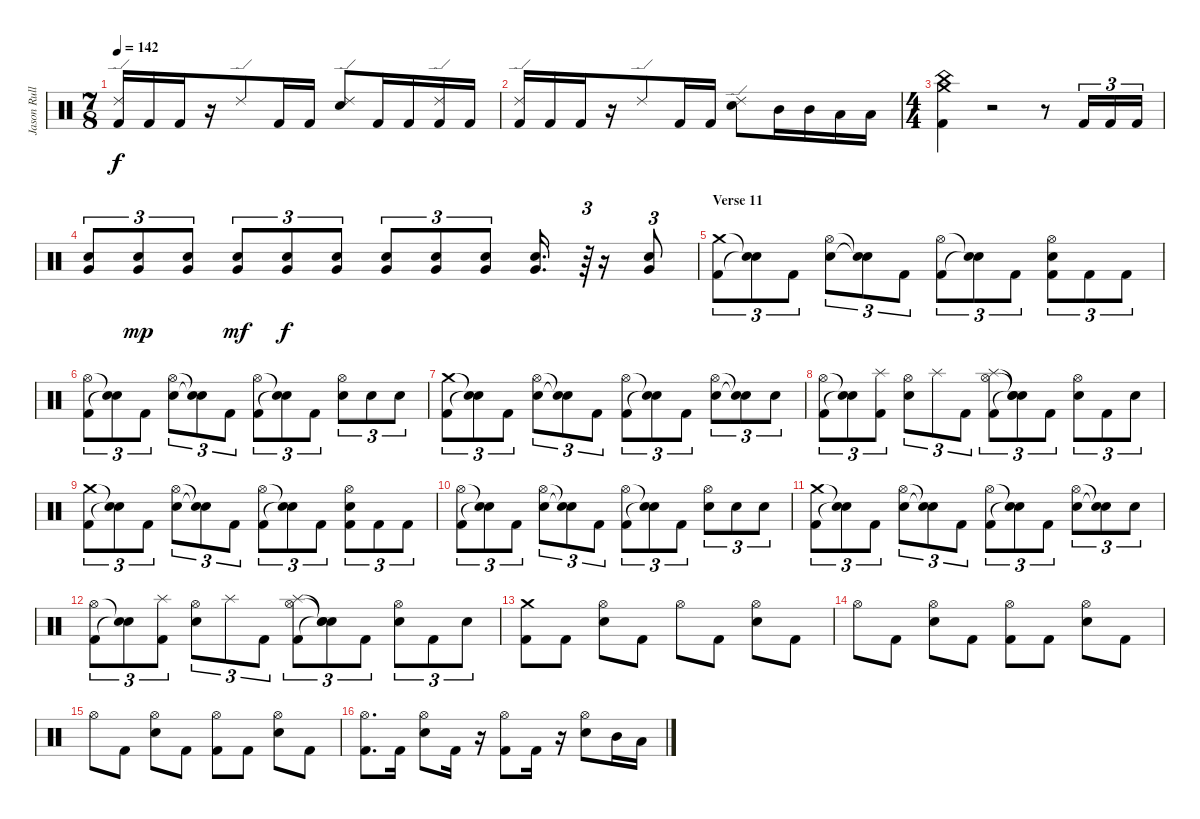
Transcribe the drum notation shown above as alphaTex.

\track ("Jason Rullo" "Jason Rull") {instrument percussion}
\staff {score}
\articulation defaults
\ts (7 8)
\tempo 142
\clef neutral
\ks c
("Ride (edge) 2" "Kick (hit) 2").16{dy f} "Kick (hit) 2".16 "Kick (hit) 2".16 r.16 "Ride (edge) 2".8 "Kick (hit) 2".16 "Kick (hit) 2".16 ("Ride (edge) 2" "Electric Snare (hit)").8 "Kick (hit) 2".16 "Kick (hit) 2".16 ("Ride (edge) 2" "Kick (hit) 2").16 "Kick (hit) 2".16 |
("Ride (edge) 2" "Kick (hit) 2").16 "Kick (hit) 2".16 "Kick (hit) 2".16 r.16 "Ride (edge) 2".8 "Kick (hit) 2".16 "Kick (hit) 2".16 ("Ride (edge) 2" "Electric Snare (hit)").8 "Mid Tom (hit)".16 "Mid Tom (hit)".16 "Low Tom (hit)".16 "Low Tom (hit)".16 |
\ts (4 4)
("China (hit)" "Crash medium (hit)" "Kick (hit) 2").4 r.2 r.8 "Kick (hit) 2".16{tu (3 2)} "Kick (hit) 2".16{tu (3 2)} "Kick (hit) 2".16{tu (3 2)} |
("Very Low Tom (hit)" "Electric Snare (hit)").8{tu (3 2)} ("Very Low Tom (hit)" "Electric Snare (hit)").8{tu (3 2) dy mp} ("Very Low Tom (hit)" "Electric Snare (hit)").8{tu (3 2)} ("Very Low Tom (hit)" "Electric Snare (hit)").8{tu (3 2) dy mf} ("Very Low Tom (hit)" "Electric Snare (hit)").8{tu (3 2) dy f} ("Very Low Tom (hit)" "Electric Snare (hit)").8{tu (3 2)} ("Very Low Tom (hit)" "Electric Snare (hit)").8{tu (3 2)} ("Very Low Tom (hit)" "Electric Snare (hit)").8{tu (3 2)} ("Very Low Tom (hit)" "Electric Snare (hit)").8{tu (3 2)} ("Very Low Tom (hit)" "Electric Snare (hit)").16{d} r.64{tu (3 2)} r.16 ("Very Low Tom (hit)" "Electric Snare (hit)").8{tu (3 2)} |
\section ("" "Verse 11")
("Crash medium (hit)" "Kick (hit) 2").8{tu (3 2)} ("Snare (hit)"{t} "Snare (hit)"{t}).8{tu (3 2)} "Kick (hit) 2".8{tu (3 2)} ("Hi-Hat (open)" "Electric Snare (hit)").8{tu (3 2)} ("Snare (hit)"{t} "Snare (hit)"{t}).8{tu (3 2)} "Kick (hit) 2".8{tu (3 2)} ("Hi-Hat (open)" "Kick (hit) 2").8{tu (3 2)} ("Snare (hit)"{t} "Snare (hit)"{t}).8{tu (3 2)} "Kick (hit) 2".8{tu (3 2)} ("Hi-Hat (open)" "Electric Snare (hit)" "Kick (hit) 2").8{tu (3 2)} "Kick (hit) 2".8{tu (3 2)} "Kick (hit) 2".8{tu (3 2)} |
("Hi-Hat (open)" "Kick (hit) 2").8{tu (3 2)} ("Snare (hit)"{t} "Snare (hit)"{t}).8{tu (3 2)} "Kick (hit) 2".8{tu (3 2)} ("Hi-Hat (open)" "Electric Snare (hit)").8{tu (3 2)} ("Snare (hit)"{t} "Snare (hit)"{t}).8{tu (3 2)} "Kick (hit) 2".8{tu (3 2)} ("Hi-Hat (open)" "Kick (hit) 2").8{tu (3 2)} ("Snare (hit)"{t} "Snare (hit)"{t}).8{tu (3 2)} "Kick (hit) 2".8{tu (3 2)} ("Hi-Hat (open)" "Electric Snare (hit)").8{tu (3 2)} "Electric Snare (hit)".8{tu (3 2)} "Electric Snare (hit)".8{tu (3 2)} |
("Crash medium (hit)" "Kick (hit) 2").8{tu (3 2)} ("Snare (hit)"{t} "Snare (hit)"{t}).8{tu (3 2)} "Kick (hit) 2".8{tu (3 2)} ("Hi-Hat (open)" "Electric Snare (hit)").8{tu (3 2)} ("Snare (hit)"{t} "Snare (hit)"{t}).8{tu (3 2)} "Kick (hit) 2".8{tu (3 2)} ("Hi-Hat (open)" "Kick (hit) 2").8{tu (3 2)} ("Snare (hit)"{t} "Snare (hit)"{t}).8{tu (3 2)} "Kick (hit) 2".8{tu (3 2)} ("Hi-Hat (open)" "Electric Snare (hit)").8{tu (3 2)} ("Snare (hit)"{t} "Snare (hit)"{t}).8{tu (3 2)} "Electric Snare (hit)".8{tu (3 2)} |
("Hi-Hat (open)" "Kick (hit) 2").8{tu (3 2)} ("Snare (hit)"{t} "Snare (hit)"{t}).8{tu (3 2)} ("Splash (hit)" "Kick (hit) 2").8{tu (3 2)} ("Hi-Hat (open)" "Electric Snare (hit)").8{tu (3 2)} "Splash (hit)".8{tu (3 2)} "Kick (hit) 2".8{tu (3 2)} ("Splash (hit)" "Hi-Hat (open)" "Kick (hit) 2").8{tu (3 2)} ("Snare (hit)"{t} "Snare (hit)"{t} "Snare (hit)"{t}).8{tu (3 2)} "Kick (hit) 2".8{tu (3 2)} ("Electric Snare (hit)" "Hi-Hat (open)").8{tu (3 2)} "Kick (hit) 2".8{tu (3 2)} "Electric Snare (hit)".8{tu (3 2)} |
("Crash medium (hit)" "Kick (hit) 2").8{tu (3 2)} ("Snare (hit)"{t} "Snare (hit)"{t}).8{tu (3 2)} "Kick (hit) 2".8{tu (3 2)} ("Hi-Hat (open)" "Electric Snare (hit)").8{tu (3 2)} ("Snare (hit)"{t} "Snare (hit)"{t}).8{tu (3 2)} "Kick (hit) 2".8{tu (3 2)} ("Hi-Hat (open)" "Kick (hit) 2").8{tu (3 2)} ("Snare (hit)"{t} "Snare (hit)"{t}).8{tu (3 2)} "Kick (hit) 2".8{tu (3 2)} ("Hi-Hat (open)" "Electric Snare (hit)" "Kick (hit) 2").8{tu (3 2)} "Kick (hit) 2".8{tu (3 2)} "Kick (hit) 2".8{tu (3 2)} |
("Hi-Hat (open)" "Kick (hit) 2").8{tu (3 2)} ("Snare (hit)"{t} "Snare (hit)"{t}).8{tu (3 2)} "Kick (hit) 2".8{tu (3 2)} ("Hi-Hat (open)" "Electric Snare (hit)").8{tu (3 2)} ("Snare (hit)"{t} "Snare (hit)"{t}).8{tu (3 2)} "Kick (hit) 2".8{tu (3 2)} ("Hi-Hat (open)" "Kick (hit) 2").8{tu (3 2)} ("Snare (hit)"{t} "Snare (hit)"{t}).8{tu (3 2)} "Kick (hit) 2".8{tu (3 2)} ("Hi-Hat (open)" "Electric Snare (hit)").8{tu (3 2)} "Electric Snare (hit)".8{tu (3 2)} "Electric Snare (hit)".8{tu (3 2)} |
("Crash medium (hit)" "Kick (hit) 2").8{tu (3 2)} ("Snare (hit)"{t} "Snare (hit)"{t}).8{tu (3 2)} "Kick (hit) 2".8{tu (3 2)} ("Hi-Hat (open)" "Electric Snare (hit)").8{tu (3 2)} ("Snare (hit)"{t} "Snare (hit)"{t}).8{tu (3 2)} "Kick (hit) 2".8{tu (3 2)} ("Hi-Hat (open)" "Kick (hit) 2").8{tu (3 2)} ("Snare (hit)"{t} "Snare (hit)"{t}).8{tu (3 2)} "Kick (hit) 2".8{tu (3 2)} ("Hi-Hat (open)" "Electric Snare (hit)").8{tu (3 2)} ("Snare (hit)"{t} "Snare (hit)"{t}).8{tu (3 2)} "Electric Snare (hit)".8{tu (3 2)} |
("Hi-Hat (open)" "Kick (hit) 2").8{tu (3 2)} ("Snare (hit)"{t} "Snare (hit)"{t}).8{tu (3 2)} ("Splash (hit)" "Kick (hit) 2").8{tu (3 2)} ("Hi-Hat (open)" "Electric Snare (hit)").8{tu (3 2)} "Splash (hit)".8{tu (3 2)} "Kick (hit) 2".8{tu (3 2)} ("Splash (hit)" "Hi-Hat (open)" "Kick (hit) 2").8{tu (3 2)} ("Snare (hit)"{t} "Snare (hit)"{t} "Snare (hit)"{t}).8{tu (3 2)} "Kick (hit) 2".8{tu (3 2)} ("Electric Snare (hit)" "Hi-Hat (open)").8{tu (3 2)} "Kick (hit) 2".8{tu (3 2)} "Electric Snare (hit)".8{tu (3 2)} |
("Crash medium (hit)" "Kick (hit) 2").8 "Kick (hit) 2".8 ("Hi-Hat (open)" "Electric Snare (hit)").8 "Kick (hit) 2".8 "Hi-Hat (open)".8 "Kick (hit) 2".8 ("Hi-Hat (open)" "Electric Snare (hit)").8 "Kick (hit) 2".8 |
"Hi-Hat (open)".8 "Kick (hit) 2".8 ("Hi-Hat (open)" "Electric Snare (hit)").8 "Kick (hit) 2".8 ("Kick (hit) 2" "Hi-Hat (open)").8 "Kick (hit) 2".8 ("Hi-Hat (open)" "Electric Snare (hit)").8 "Kick (hit) 2".8 |
"Hi-Hat (open)".8 "Kick (hit) 2".8 ("Hi-Hat (open)" "Electric Snare (hit)").8 "Kick (hit) 2".8 ("Kick (hit) 2" "Hi-Hat (open)").8 "Kick (hit) 2".8 ("Hi-Hat (open)" "Electric Snare (hit)").8 "Kick (hit) 2".8 |
("Hi-Hat (open)" "Kick (hit) 2").8{d} "Kick (hit) 2".16 ("Hi-Hat (open)" "Electric Snare (hit)").8 "Kick (hit) 2".16 r.16 ("Hi-Hat (open)" "Kick (hit) 2").8 "Kick (hit) 2".16 r.16 ("Hi-Hat (open)" "Electric Snare (hit)").8 "Mid Tom (hit)".16 "Low Tom (hit)".16
